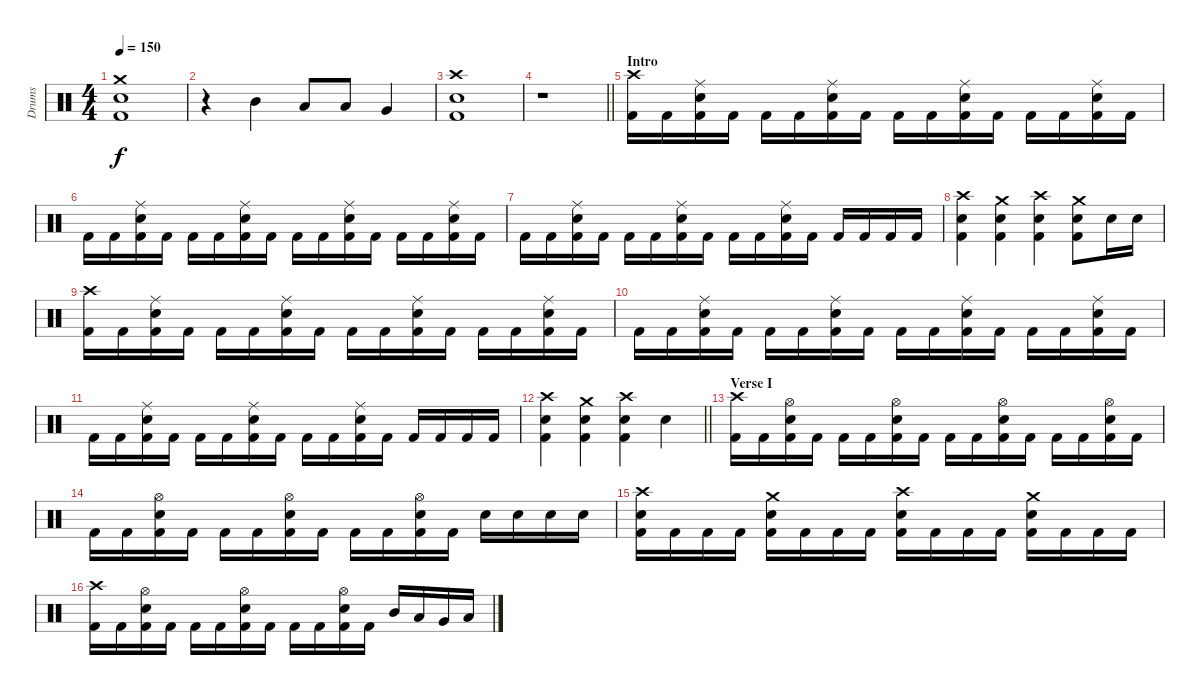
\track ("Drums" "Drums") {instrument percussion}
\staff {score}
\articulation defaults
\ts (4 4)
\tempo 150
\clef neutral
\ks c
("Crash medium (hit)" "Snare (hit) 2" "Kick (hit) 2").1{dy f} |
r.4 "Mid Tom (hit)".4 "Low Tom (hit)".8 "Low Tom (hit)".8 "Very Low Tom (hit)".4 |
("Crash high (hit)" "Snare (hit) 2" "Kick (hit) 2").1 |
\barLineRight lightlight
r.1 |
\section ("" "Intro")
("Crash high (hit)" "Kick (hit) 2").16 "Kick (hit) 2".16 ("Ride (middle)" "Snare (hit) 2" "Kick (hit) 2").16 "Kick (hit) 2".16 "Kick (hit) 2".16 "Kick (hit) 2".16 ("Ride (middle)" "Snare (hit) 2" "Kick (hit) 2").16 "Kick (hit) 2".16 "Kick (hit) 2".16 "Kick (hit) 2".16 ("Ride (middle)" "Snare (hit) 2" "Kick (hit) 2").16 "Kick (hit) 2".16 "Kick (hit) 2".16 "Kick (hit) 2".16 ("Ride (middle)" "Snare (hit) 2" "Kick (hit) 2").16 "Kick (hit) 2".16 |
"Kick (hit) 2".16 "Kick (hit) 2".16 ("Ride (middle)" "Snare (hit) 2" "Kick (hit) 2").16 "Kick (hit) 2".16 "Kick (hit) 2".16 "Kick (hit) 2".16 ("Ride (middle)" "Snare (hit) 2" "Kick (hit) 2").16 "Kick (hit) 2".16 "Kick (hit) 2".16 "Kick (hit) 2".16 ("Ride (middle)" "Snare (hit) 2" "Kick (hit) 2").16 "Kick (hit) 2".16 "Kick (hit) 2".16 "Kick (hit) 2".16 ("Ride (middle)" "Snare (hit) 2" "Kick (hit) 2").16 "Kick (hit) 2".16 |
"Kick (hit) 2".16 "Kick (hit) 2".16 ("Ride (middle)" "Snare (hit) 2" "Kick (hit) 2").16 "Kick (hit) 2".16 "Kick (hit) 2".16 "Kick (hit) 2".16 ("Ride (middle)" "Snare (hit) 2" "Kick (hit) 2").16 "Kick (hit) 2".16 "Kick (hit) 2".16 "Kick (hit) 2".16 ("Ride (middle)" "Snare (hit) 2" "Kick (hit) 2").16 "Kick (hit) 2".16 "Kick (hit) 2".16 "Kick (hit) 2".16 "Kick (hit) 2".16 "Kick (hit) 2".16 |
("Crash high (hit)" "Snare (hit) 2" "Kick (hit) 2").4 ("Crash medium (hit)" "Snare (hit) 2" "Kick (hit) 2").4 ("Crash high (hit)" "Snare (hit) 2" "Kick (hit) 2").4 ("Crash medium (hit)" "Snare (hit) 2" "Kick (hit) 2").8 "Snare (hit) 2".16 "Snare (hit) 2".16 |
("Crash high (hit)" "Kick (hit) 2").16 "Kick (hit) 2".16 ("Ride (middle)" "Snare (hit) 2" "Kick (hit) 2").16 "Kick (hit) 2".16 "Kick (hit) 2".16 "Kick (hit) 2".16 ("Ride (middle)" "Snare (hit) 2" "Kick (hit) 2").16 "Kick (hit) 2".16 "Kick (hit) 2".16 "Kick (hit) 2".16 ("Ride (middle)" "Snare (hit) 2" "Kick (hit) 2").16 "Kick (hit) 2".16 "Kick (hit) 2".16 "Kick (hit) 2".16 ("Ride (middle)" "Snare (hit) 2" "Kick (hit) 2").16 "Kick (hit) 2".16 |
"Kick (hit) 2".16 "Kick (hit) 2".16 ("Ride (middle)" "Snare (hit) 2" "Kick (hit) 2").16 "Kick (hit) 2".16 "Kick (hit) 2".16 "Kick (hit) 2".16 ("Ride (middle)" "Snare (hit) 2" "Kick (hit) 2").16 "Kick (hit) 2".16 "Kick (hit) 2".16 "Kick (hit) 2".16 ("Ride (middle)" "Snare (hit) 2" "Kick (hit) 2").16 "Kick (hit) 2".16 "Kick (hit) 2".16 "Kick (hit) 2".16 ("Ride (middle)" "Snare (hit) 2" "Kick (hit) 2").16 "Kick (hit) 2".16 |
"Kick (hit) 2".16 "Kick (hit) 2".16 ("Ride (middle)" "Snare (hit) 2" "Kick (hit) 2").16 "Kick (hit) 2".16 "Kick (hit) 2".16 "Kick (hit) 2".16 ("Ride (middle)" "Snare (hit) 2" "Kick (hit) 2").16 "Kick (hit) 2".16 "Kick (hit) 2".16 "Kick (hit) 2".16 ("Ride (middle)" "Snare (hit) 2" "Kick (hit) 2").16 "Kick (hit) 2".16 "Kick (hit) 2".16 "Kick (hit) 2".16 "Kick (hit) 2".16 "Kick (hit) 2".16 |
\barLineRight lightlight
("Crash high (hit)" "Snare (hit) 2" "Kick (hit) 2").4 ("Crash medium (hit)" "Snare (hit) 2" "Kick (hit) 2").4 ("Crash high (hit)" "Snare (hit) 2" "Kick (hit) 2").4 "Snare (hit) 2".4 |
\section ("" "Verse I")
("Crash high (hit)" "Kick (hit) 2").16 "Kick (hit) 2".16 ("Hi-Hat (open)" "Snare (hit) 2" "Kick (hit) 2").16 "Kick (hit) 2".16 "Kick (hit) 2".16 "Kick (hit) 2".16 ("Hi-Hat (open)" "Snare (hit) 2" "Kick (hit) 2").16 "Kick (hit) 2".16 "Kick (hit) 2".16 "Kick (hit) 2".16 ("Hi-Hat (open)" "Snare (hit) 2" "Kick (hit) 2").16 "Kick (hit) 2".16 "Kick (hit) 2".16 "Kick (hit) 2".16 ("Hi-Hat (open)" "Snare (hit) 2" "Kick (hit) 2").16 "Kick (hit) 2".16 |
"Kick (hit) 2".16 "Kick (hit) 2".16 ("Hi-Hat (open)" "Snare (hit) 2" "Kick (hit) 2").16 "Kick (hit) 2".16 "Kick (hit) 2".16 "Kick (hit) 2".16 ("Hi-Hat (open)" "Snare (hit) 2" "Kick (hit) 2").16 "Kick (hit) 2".16 "Kick (hit) 2".16 "Kick (hit) 2".16 ("Hi-Hat (open)" "Snare (hit) 2" "Kick (hit) 2").16 "Kick (hit) 2".16 "Snare (hit) 2".16 "Snare (hit) 2".16 "Snare (hit) 2".16 "Snare (hit) 2".16 |
("Crash high (hit)" "Snare (hit) 2" "Kick (hit) 2").16 "Kick (hit) 2".16 "Kick (hit) 2".16 "Kick (hit) 2".16 ("Crash medium (hit)" "Snare (hit) 2" "Kick (hit) 2").16 "Kick (hit) 2".16 "Kick (hit) 2".16 "Kick (hit) 2".16 ("Crash high (hit)" "Snare (hit) 2" "Kick (hit) 2").16 "Kick (hit) 2".16 "Kick (hit) 2".16 "Kick (hit) 2".16 ("Crash medium (hit)" "Snare (hit) 2" "Kick (hit) 2").16 "Kick (hit) 2".16 "Kick (hit) 2".16 "Kick (hit) 2".16 |
("Crash high (hit)" "Kick (hit) 2").16 "Kick (hit) 2".16 ("Hi-Hat (open)" "Snare (hit) 2" "Kick (hit) 2").16 "Kick (hit) 2".16 "Kick (hit) 2".16 "Kick (hit) 2".16 ("Hi-Hat (open)" "Snare (hit) 2" "Kick (hit) 2").16 "Kick (hit) 2".16 "Kick (hit) 2".16 "Kick (hit) 2".16 ("Hi-Hat (open)" "Snare (hit) 2" "Kick (hit) 2").16 "Kick (hit) 2".16 "Mid Tom (hit)".16 "Low Tom (hit)".16 "Very Low Tom (hit)".16 "Low Floor Tom (hit)".16
